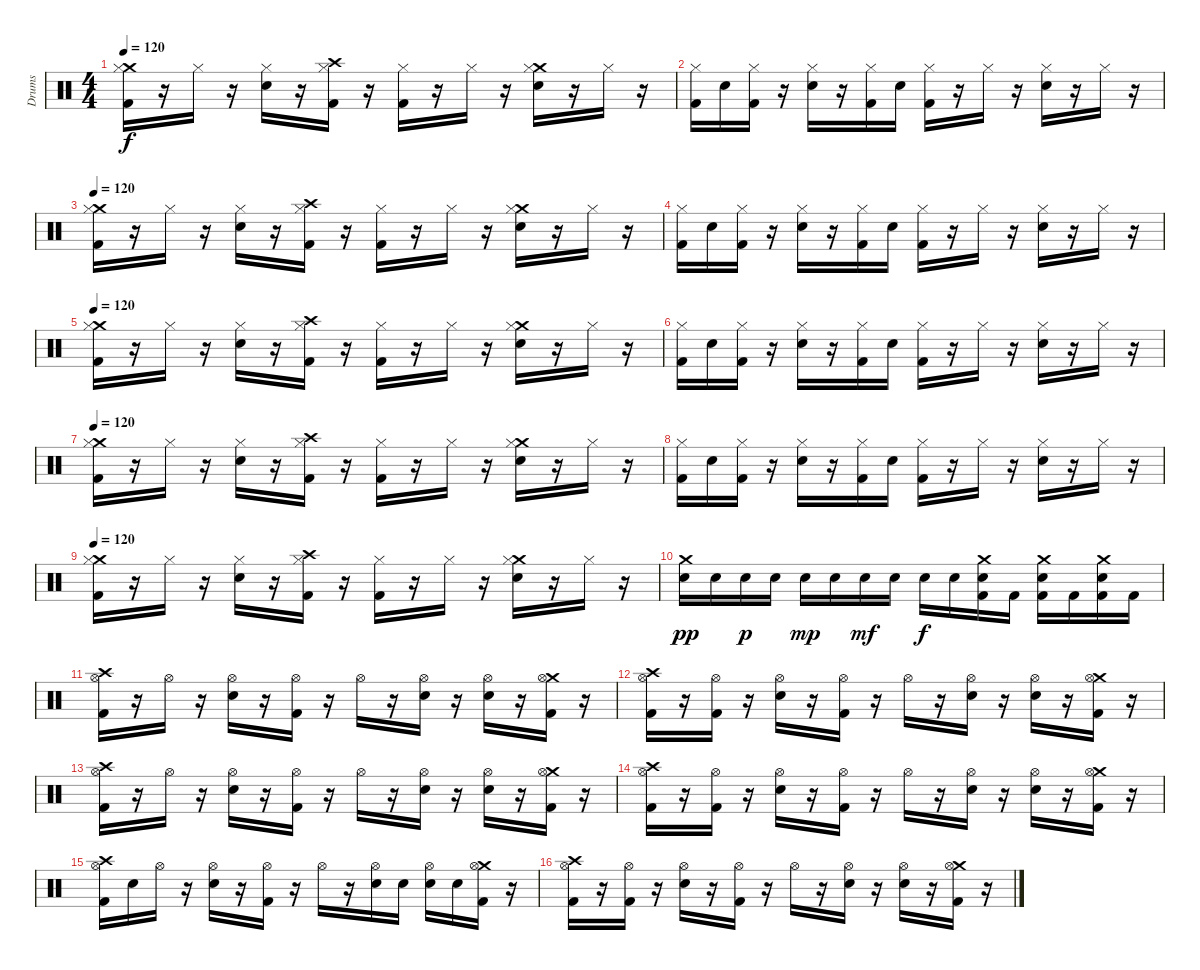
\track ("Drums" "Drums") {instrument percussion}
\staff {score}
\articulation defaults
\ts (4 4)
\tempo 120
\clef neutral
\ks c
("Crash medium (hit)" "Hi-Hat (closed)" "Kick (hit) 2").16{dy f} r.16 "Hi-Hat (closed)".16 r.16 ("Hi-Hat (closed)" "Electric Snare (hit)").16 r.16 ("Crash high (hit)" "Hi-Hat (closed)" "Kick (hit) 2").16 r.16 ("Hi-Hat (closed)" "Kick (hit) 2").16 r.16 "Hi-Hat (closed)".16 r.16 ("Crash medium (hit)" "Hi-Hat (closed)" "Electric Snare (hit)").16 r.16 "Hi-Hat (closed)".16 r.16 |
("Hi-Hat (closed)" "Kick (hit) 2").16 "Electric Snare (hit)".16 ("Hi-Hat (closed)" "Kick (hit) 2").16 r.16 ("Hi-Hat (closed)" "Electric Snare (hit)").16 r.16 ("Hi-Hat (closed)" "Kick (hit) 2").16 "Electric Snare (hit)".16 ("Hi-Hat (closed)" "Kick (hit) 2").16 r.16 "Hi-Hat (closed)".16 r.16 ("Hi-Hat (closed)" "Electric Snare (hit)").16 r.16 "Hi-Hat (closed)".16 r.16 |
\tempo 120
("Crash medium (hit)" "Hi-Hat (closed)" "Kick (hit) 2").16 r.16 "Hi-Hat (closed)".16 r.16 ("Hi-Hat (closed)" "Electric Snare (hit)").16 r.16 ("Crash high (hit)" "Hi-Hat (closed)" "Kick (hit) 2").16 r.16 ("Hi-Hat (closed)" "Kick (hit) 2").16 r.16 "Hi-Hat (closed)".16 r.16 ("Crash medium (hit)" "Hi-Hat (closed)" "Electric Snare (hit)").16 r.16 "Hi-Hat (closed)".16 r.16 |
("Hi-Hat (closed)" "Kick (hit) 2").16 "Electric Snare (hit)".16 ("Hi-Hat (closed)" "Kick (hit) 2").16 r.16 ("Hi-Hat (closed)" "Electric Snare (hit)").16 r.16 ("Hi-Hat (closed)" "Kick (hit) 2").16 "Electric Snare (hit)".16 ("Hi-Hat (closed)" "Kick (hit) 2").16 r.16 "Hi-Hat (closed)".16 r.16 ("Hi-Hat (closed)" "Electric Snare (hit)").16 r.16 "Hi-Hat (closed)".16 r.16 |
\tempo 120
("Crash medium (hit)" "Hi-Hat (closed)" "Kick (hit) 2").16 r.16 "Hi-Hat (closed)".16 r.16 ("Hi-Hat (closed)" "Electric Snare (hit)").16 r.16 ("Crash high (hit)" "Hi-Hat (closed)" "Kick (hit) 2").16 r.16 ("Hi-Hat (closed)" "Kick (hit) 2").16 r.16 "Hi-Hat (closed)".16 r.16 ("Crash medium (hit)" "Hi-Hat (closed)" "Electric Snare (hit)").16 r.16 "Hi-Hat (closed)".16 r.16 |
("Hi-Hat (closed)" "Kick (hit) 2").16 "Electric Snare (hit)".16 ("Hi-Hat (closed)" "Kick (hit) 2").16 r.16 ("Hi-Hat (closed)" "Electric Snare (hit)").16 r.16 ("Hi-Hat (closed)" "Kick (hit) 2").16 "Electric Snare (hit)".16 ("Hi-Hat (closed)" "Kick (hit) 2").16 r.16 "Hi-Hat (closed)".16 r.16 ("Hi-Hat (closed)" "Electric Snare (hit)").16 r.16 "Hi-Hat (closed)".16 r.16 |
\tempo 120
("Crash medium (hit)" "Hi-Hat (closed)" "Kick (hit) 2").16 r.16 "Hi-Hat (closed)".16 r.16 ("Hi-Hat (closed)" "Electric Snare (hit)").16 r.16 ("Crash high (hit)" "Hi-Hat (closed)" "Kick (hit) 2").16 r.16 ("Hi-Hat (closed)" "Kick (hit) 2").16 r.16 "Hi-Hat (closed)".16 r.16 ("Crash medium (hit)" "Hi-Hat (closed)" "Electric Snare (hit)").16 r.16 "Hi-Hat (closed)".16 r.16 |
("Hi-Hat (closed)" "Kick (hit) 2").16 "Electric Snare (hit)".16 ("Hi-Hat (closed)" "Kick (hit) 2").16 r.16 ("Hi-Hat (closed)" "Electric Snare (hit)").16 r.16 ("Hi-Hat (closed)" "Kick (hit) 2").16 "Electric Snare (hit)".16 ("Hi-Hat (closed)" "Kick (hit) 2").16 r.16 "Hi-Hat (closed)".16 r.16 ("Hi-Hat (closed)" "Electric Snare (hit)").16 r.16 "Hi-Hat (closed)".16 r.16 |
\tempo 120
("Crash medium (hit)" "Hi-Hat (closed)" "Kick (hit) 2").16 r.16 "Hi-Hat (closed)".16 r.16 ("Hi-Hat (closed)" "Electric Snare (hit)").16 r.16 ("Crash high (hit)" "Hi-Hat (closed)" "Kick (hit) 2").16 r.16 ("Hi-Hat (closed)" "Kick (hit) 2").16 r.16 "Hi-Hat (closed)".16 r.16 ("Crash medium (hit)" "Hi-Hat (closed)" "Electric Snare (hit)").16 r.16 "Hi-Hat (closed)".16 r.16 |
("Crash medium (hit)" "Electric Snare (hit)").16{dy pp} "Electric Snare (hit)".16 "Electric Snare (hit)".16{dy p} "Electric Snare (hit)".16 "Electric Snare (hit)".16{dy mp} "Electric Snare (hit)".16 "Electric Snare (hit)".16{dy mf} "Electric Snare (hit)".16 "Electric Snare (hit)".16{dy f} "Electric Snare (hit)".16 ("Crash medium (hit)" "Electric Snare (hit)" "Kick (hit) 2").16 "Kick (hit) 2".16 ("Crash medium (hit)" "Electric Snare (hit)" "Kick (hit) 2").16 "Kick (hit) 2".16 ("Crash medium (hit)" "Electric Snare (hit)" "Kick (hit) 2").16 "Kick (hit) 2".16 |
("Crash high (hit)" "Hi-Hat (open)" "Kick (hit) 2").16 r.16 "Hi-Hat (open)".16 r.16 ("Hi-Hat (open)" "Electric Snare (hit)").16 r.16 ("Hi-Hat (open)" "Kick (hit) 2").16 r.16 "Hi-Hat (open)".16 r.16 ("Hi-Hat (open)" "Electric Snare (hit)").16 r.16 ("Hi-Hat (open)" "Electric Snare (hit)").16 r.16 ("Crash medium (hit)" "Hi-Hat (open)" "Kick (hit) 2").16 r.16 |
("Crash high (hit)" "Hi-Hat (open)" "Kick (hit) 2").16 r.16 ("Hi-Hat (open)" "Kick (hit) 2").16 r.16 ("Hi-Hat (open)" "Electric Snare (hit)").16 r.16 ("Hi-Hat (open)" "Kick (hit) 2").16 r.16 "Hi-Hat (open)".16 r.16 ("Hi-Hat (open)" "Electric Snare (hit)").16 r.16 ("Hi-Hat (open)" "Electric Snare (hit)").16 r.16 ("Crash medium (hit)" "Hi-Hat (open)" "Kick (hit) 2").16 r.16 |
("Crash high (hit)" "Hi-Hat (open)" "Kick (hit) 2").16 r.16 "Hi-Hat (open)".16 r.16 ("Hi-Hat (open)" "Electric Snare (hit)").16 r.16 ("Hi-Hat (open)" "Kick (hit) 2").16 r.16 "Hi-Hat (open)".16 r.16 ("Hi-Hat (open)" "Electric Snare (hit)").16 r.16 ("Hi-Hat (open)" "Electric Snare (hit)").16 r.16 ("Crash medium (hit)" "Hi-Hat (open)" "Kick (hit) 2").16 r.16 |
("Crash high (hit)" "Hi-Hat (open)" "Kick (hit) 2").16 r.16 ("Hi-Hat (open)" "Kick (hit) 2").16 r.16 ("Hi-Hat (open)" "Electric Snare (hit)").16 r.16 ("Hi-Hat (open)" "Kick (hit) 2").16 r.16 "Hi-Hat (open)".16 r.16 ("Hi-Hat (open)" "Electric Snare (hit)").16 r.16 ("Hi-Hat (open)" "Electric Snare (hit)").16 r.16 ("Crash medium (hit)" "Hi-Hat (open)" "Kick (hit) 2").16 r.16 |
("Crash high (hit)" "Hi-Hat (open)" "Kick (hit) 2").16 "Electric Snare (hit)".16 "Hi-Hat (open)".16 r.16 ("Hi-Hat (open)" "Electric Snare (hit)").16 r.16 ("Hi-Hat (open)" "Kick (hit) 2").16 r.16 "Hi-Hat (open)".16 r.16 ("Hi-Hat (open)" "Electric Snare (hit)").16 "Electric Snare (hit)".16 ("Hi-Hat (open)" "Electric Snare (hit)").16 "Electric Snare (hit)".16 ("Crash medium (hit)" "Hi-Hat (open)" "Kick (hit) 2").16 r.16 |
("Crash high (hit)" "Hi-Hat (open)" "Kick (hit) 2").16 r.16 ("Hi-Hat (open)" "Kick (hit) 2").16 r.16 ("Hi-Hat (open)" "Electric Snare (hit)").16 r.16 ("Hi-Hat (open)" "Kick (hit) 2").16 r.16 "Hi-Hat (open)".16 r.16 ("Hi-Hat (open)" "Electric Snare (hit)").16 r.16 ("Hi-Hat (open)" "Electric Snare (hit)").16 r.16 ("Crash medium (hit)" "Hi-Hat (open)" "Kick (hit) 2").16 r.16
